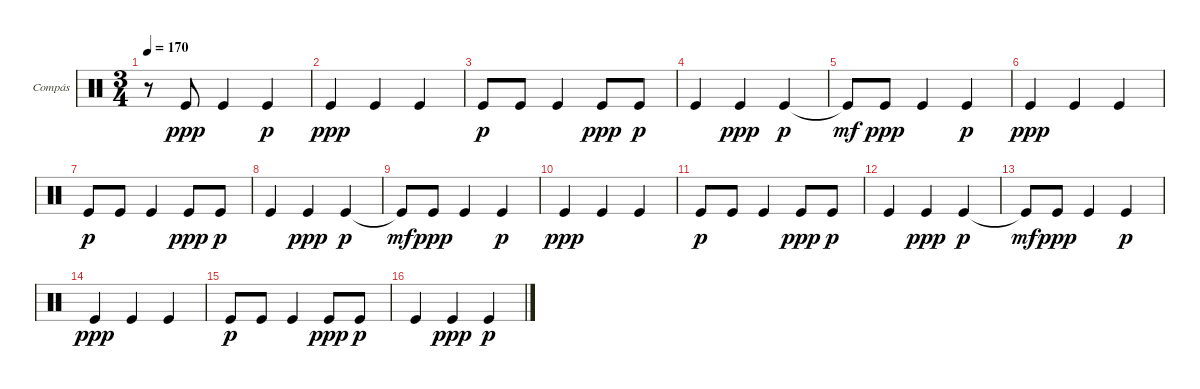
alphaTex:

\defaultSystemsLayout 4
\bracketExtendMode groupsimilarinstruments
\firstSystemTrackNameOrientation horizontal
\otherSystemsTrackNameOrientation horizontal
\track ("Compás" "Compás") {instrument percussion}
\staff {score}
\articulation defaults
\ts (3 4)
\tempo 170
\clef neutral
\scale
0.472222
\ks c
r.8{dy ppp} "Kick (hit)".8 "Kick (hit)".4 "Kick (hit)".4{dy p} |
\scale
0.263889 "Kick (hit)".4{dy ppp} "Kick (hit)".4 "Kick (hit)".4 |
\scale
0.263889 "Kick (hit)".8{dy p} "Kick (hit)".8 "Kick (hit)".4 "Kick (hit)".8{dy ppp} "Kick (hit)".8{dy p} |
\scale
0.333333 "Kick (hit)".4 "Kick (hit)".4{dy ppp} "Kick (hit)".4{dy p} |
\scale
0.333333 "Kick (hit)"{t}.8{dy mf} "Kick (hit)".8{dy ppp} "Kick (hit)".4 "Kick (hit)".4{dy p} |
\scale
0.333333 "Kick (hit)".4{dy ppp} "Kick (hit)".4 "Kick (hit)".4 |
\scale
0.333333 "Kick (hit)".8{dy p} "Kick (hit)".8 "Kick (hit)".4 "Kick (hit)".8{dy ppp} "Kick (hit)".8{dy p} |
\scale
0.333333 "Kick (hit)".4 "Kick (hit)".4{dy ppp} "Kick (hit)".4{dy p} |
\scale
0.333333 "Kick (hit)"{t}.8{dy mf} "Kick (hit)".8{dy ppp} "Kick (hit)".4 "Kick (hit)".4{dy p} |
"Kick (hit)".4{dy ppp} "Kick (hit)".4 "Kick (hit)".4 |
"Kick (hit)".8{dy p} "Kick (hit)".8 "Kick (hit)".4 "Kick (hit)".8{dy ppp} "Kick (hit)".8{dy p} |
"Kick (hit)".4 "Kick (hit)".4{dy ppp} "Kick (hit)".4{dy p} |
"Kick (hit)"{t}.8{dy mf} "Kick (hit)".8{dy ppp} "Kick (hit)".4 "Kick (hit)".4{dy p} |
"Kick (hit)".4{dy ppp} "Kick (hit)".4 "Kick (hit)".4 |
"Kick (hit)".8{dy p} "Kick (hit)".8 "Kick (hit)".4 "Kick (hit)".8{dy ppp} "Kick (hit)".8{dy p} |
"Kick (hit)".4 "Kick (hit)".4{dy ppp} "Kick (hit)".4{dy p}
